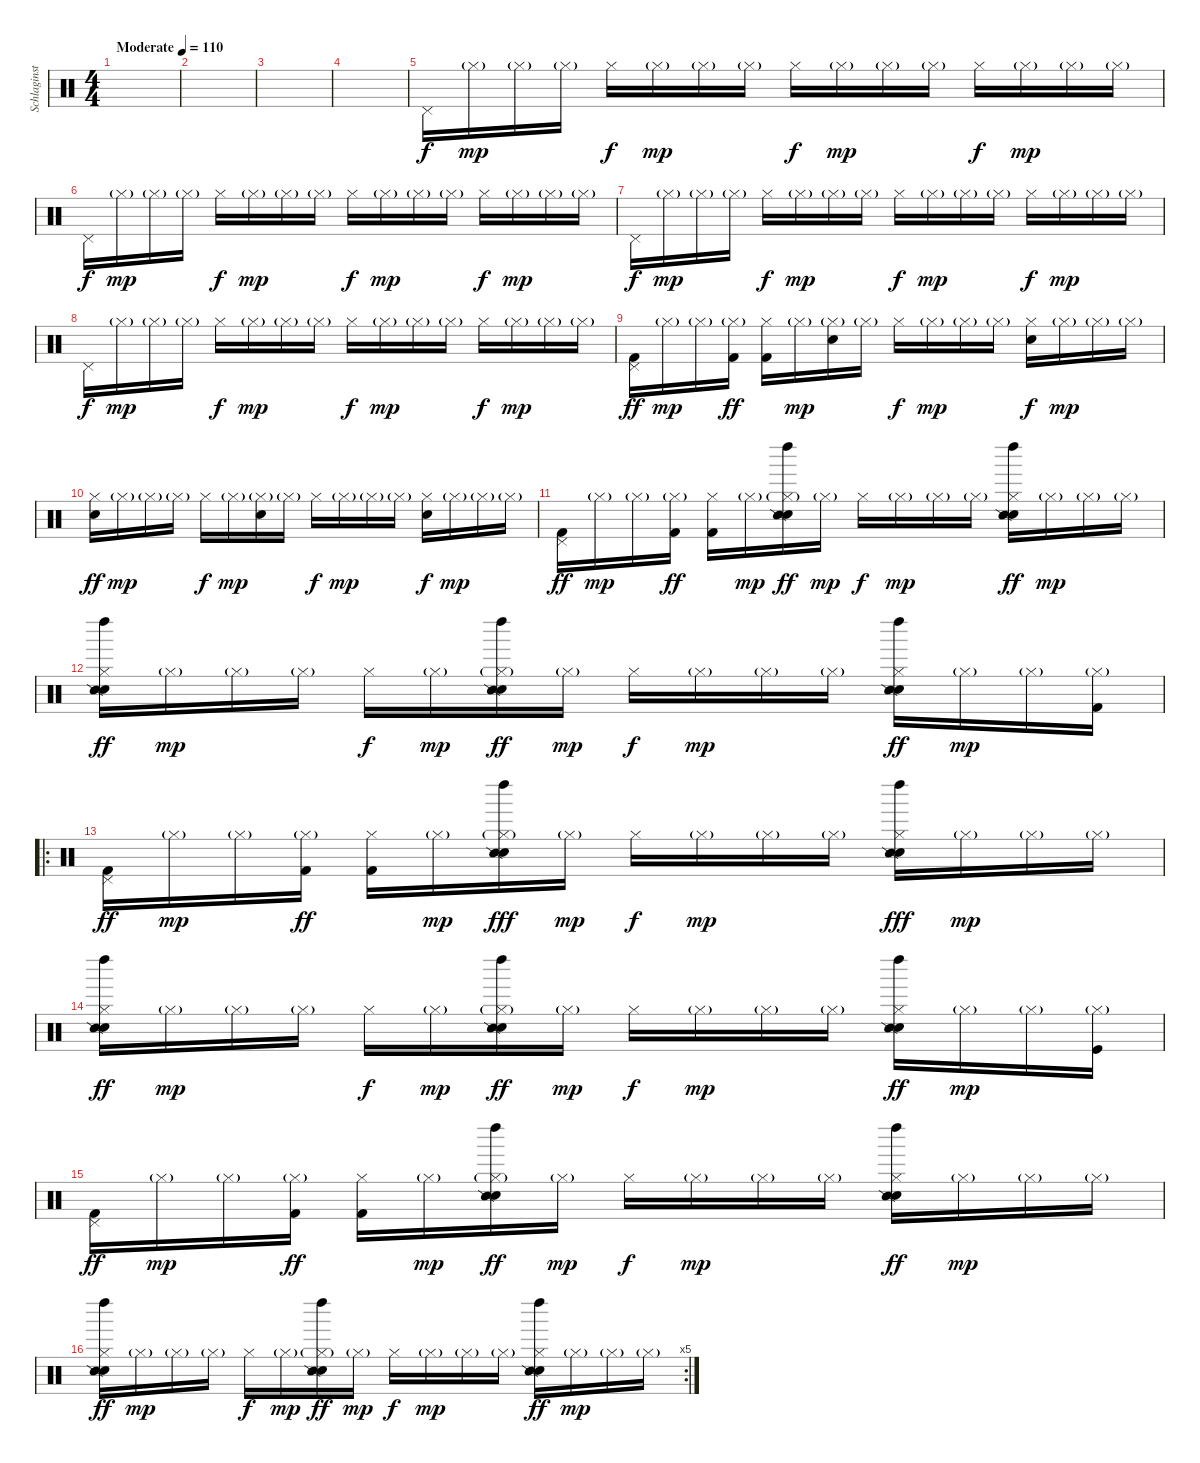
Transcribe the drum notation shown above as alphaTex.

\track ("Schlaginstrumente - Auswahl" "Schlaginst") {instrument percussion}
\staff {score}
\articulation defaults
\ts (4 4)
\tempo (110 "Moderate")
\clef neutral
\ks c
|
|
|
|
"Pedal Hi-Hat (hit)".16 "Hi-Hat (closed)"{g}.16{dy mp} "Hi-Hat (closed)"{g}.16 "Hi-Hat (closed)"{g}.16 "Hi-Hat (closed)".16{dy f} "Hi-Hat (closed)"{g}.16{dy mp} "Hi-Hat (closed)"{g}.16 "Hi-Hat (closed)"{g}.16 "Hi-Hat (closed)".16{dy f} "Hi-Hat (closed)"{g}.16{dy mp} "Hi-Hat (closed)"{g}.16 "Hi-Hat (closed)"{g}.16 "Hi-Hat (closed)".16{dy f} "Hi-Hat (closed)"{g}.16{dy mp} "Hi-Hat (closed)"{g}.16 "Hi-Hat (closed)"{g}.16 |
"Pedal Hi-Hat (hit)".16{dy f} "Hi-Hat (closed)"{g}.16{dy mp} "Hi-Hat (closed)"{g}.16 "Hi-Hat (closed)"{g}.16 "Hi-Hat (closed)".16{dy f} "Hi-Hat (closed)"{g}.16{dy mp} "Hi-Hat (closed)"{g}.16 "Hi-Hat (closed)"{g}.16 "Hi-Hat (closed)".16{dy f} "Hi-Hat (closed)"{g}.16{dy mp} "Hi-Hat (closed)"{g}.16 "Hi-Hat (closed)"{g}.16 "Hi-Hat (closed)".16{dy f} "Hi-Hat (closed)"{g}.16{dy mp} "Hi-Hat (closed)"{g}.16 "Hi-Hat (closed)"{g}.16 |
"Pedal Hi-Hat (hit)".16{dy f} "Hi-Hat (closed)"{g}.16{dy mp} "Hi-Hat (closed)"{g}.16 "Hi-Hat (closed)"{g}.16 "Hi-Hat (closed)".16{dy f} "Hi-Hat (closed)"{g}.16{dy mp} "Hi-Hat (closed)"{g}.16 "Hi-Hat (closed)"{g}.16 "Hi-Hat (closed)".16{dy f} "Hi-Hat (closed)"{g}.16{dy mp} "Hi-Hat (closed)"{g}.16 "Hi-Hat (closed)"{g}.16 "Hi-Hat (closed)".16{dy f} "Hi-Hat (closed)"{g}.16{dy mp} "Hi-Hat (closed)"{g}.16 "Hi-Hat (closed)"{g}.16 |
"Pedal Hi-Hat (hit)".16{dy f} "Hi-Hat (closed)"{g}.16{dy mp} "Hi-Hat (closed)"{g}.16 "Hi-Hat (closed)"{g}.16 "Hi-Hat (closed)".16{dy f} "Hi-Hat (closed)"{g}.16{dy mp} "Hi-Hat (closed)"{g}.16 "Hi-Hat (closed)"{g}.16 "Hi-Hat (closed)".16{dy f} "Hi-Hat (closed)"{g}.16{dy mp} "Hi-Hat (closed)"{g}.16 "Hi-Hat (closed)"{g}.16 "Hi-Hat (closed)".16{dy f} "Hi-Hat (closed)"{g}.16{dy mp} "Hi-Hat (closed)"{g}.16 "Hi-Hat (closed)"{g}.16 |
("Pedal Hi-Hat (hit)" "Kick (hit) 2").16{dy ff} "Hi-Hat (closed)"{g}.16{dy mp} "Hi-Hat (closed)"{g}.16 ("Hi-Hat (closed)"{g} "Kick (hit) 2").16{dy ff} ("Hi-Hat (closed)" "Kick (hit) 2").16 "Hi-Hat (closed)"{g}.16{dy mp} ("Hi-Hat (closed)"{g} "Electric Snare (hit)").16 "Hi-Hat (closed)"{g}.16 "Hi-Hat (closed)".16{dy f} "Hi-Hat (closed)"{g}.16{dy mp} "Hi-Hat (closed)"{g}.16 "Hi-Hat (closed)"{g}.16 ("Hi-Hat (closed)" "Electric Snare (hit)").16{dy f} "Hi-Hat (closed)"{g}.16{dy mp} "Hi-Hat (closed)"{g}.16 "Hi-Hat (closed)"{g}.16 |
("Hi-Hat (closed)" "Electric Snare (hit)").16{dy ff} "Hi-Hat (closed)"{g}.16{dy mp} "Hi-Hat (closed)"{g}.16 "Hi-Hat (closed)"{g}.16 "Hi-Hat (closed)".16{dy f} "Hi-Hat (closed)"{g}.16{dy mp} ("Hi-Hat (closed)"{g} "Electric Snare (hit)").16 "Hi-Hat (closed)"{g}.16 "Hi-Hat (closed)".16{dy f} "Hi-Hat (closed)"{g}.16{dy mp} "Hi-Hat (closed)"{g}.16 "Hi-Hat (closed)"{g}.16 ("Hi-Hat (closed)" "Electric Snare (hit)").16{dy f} "Hi-Hat (closed)"{g}.16{dy mp} "Hi-Hat (closed)"{g}.16 "Hi-Hat (closed)"{g}.16 |
("Pedal Hi-Hat (hit)" "Kick (hit) 2").16{dy ff} "Hi-Hat (closed)"{g}.16{dy mp} "Hi-Hat (closed)"{g}.16 ("Hi-Hat (closed)"{g} "Kick (hit) 2").16{dy ff} ("Hi-Hat (closed)" "Kick (hit) 2").16 "Hi-Hat (closed)"{g}.16{dy mp} ("Hi-Hat (closed)"{g} "Electric Snare (hit)" "Left Maraca (hit)" "Snare (side stick) 2").16{dy ff} "Hi-Hat (closed)"{g}.16{dy mp} "Hi-Hat (closed)".16{dy f} "Hi-Hat (closed)"{g}.16{dy mp} "Hi-Hat (closed)"{g}.16 "Hi-Hat (closed)"{g}.16 ("Hi-Hat (closed)" "Electric Snare (hit)" "Left Maraca (hit)" "Snare (side stick) 2").16{dy ff} "Hi-Hat (closed)"{g}.16{dy mp} "Hi-Hat (closed)"{g}.16 "Hi-Hat (closed)"{g}.16 |
("Hi-Hat (closed)" "Electric Snare (hit)" "Left Maraca (hit)" "Snare (side stick) 2").16{dy ff} "Hi-Hat (closed)"{g}.16{dy mp} "Hi-Hat (closed)"{g}.16 "Hi-Hat (closed)"{g}.16 "Hi-Hat (closed)".16{dy f} "Hi-Hat (closed)"{g}.16{dy mp} ("Hi-Hat (closed)"{g} "Electric Snare (hit)" "Left Maraca (hit)" "Snare (side stick) 2").16{dy ff} "Hi-Hat (closed)"{g}.16{dy mp} "Hi-Hat (closed)".16{dy f} "Hi-Hat (closed)"{g}.16{dy mp} "Hi-Hat (closed)"{g}.16 "Hi-Hat (closed)"{g}.16 ("Hi-Hat (closed)" "Electric Snare (hit)" "Left Maraca (hit)" "Snare (side stick) 2").16{dy ff} "Hi-Hat (closed)"{g}.16{dy mp} "Hi-Hat (closed)"{g}.16 ("Hi-Hat (closed)"{g} "Kick (hit) 2").16 |
\ro
("Pedal Hi-Hat (hit)" "Kick (hit) 2").16{dy ff} "Hi-Hat (closed)"{g}.16{dy mp} "Hi-Hat (closed)"{g}.16 ("Hi-Hat (closed)"{g} "Kick (hit) 2").16{dy ff} ("Hi-Hat (closed)" "Kick (hit) 2").16 "Hi-Hat (closed)"{g}.16{dy mp} ("Hi-Hat (closed)"{g} "Electric Snare (hit)" "Left Maraca (hit)" "Snare (side stick) 2").16{dy fff} "Hi-Hat (closed)"{g}.16{dy mp} "Hi-Hat (closed)".16{dy f} "Hi-Hat (closed)"{g}.16{dy mp} "Hi-Hat (closed)"{g}.16 "Hi-Hat (closed)"{g}.16 ("Hi-Hat (closed)" "Electric Snare (hit)" "Left Maraca (hit)" "Snare (side stick) 2").16{dy fff} "Hi-Hat (closed)"{g}.16{dy mp} "Hi-Hat (closed)"{g}.16 "Hi-Hat (closed)"{g}.16 |
("Hi-Hat (closed)" "Electric Snare (hit)" "Left Maraca (hit)" "Snare (side stick) 2").16{dy ff} "Hi-Hat (closed)"{g}.16{dy mp} "Hi-Hat (closed)"{g}.16 "Hi-Hat (closed)"{g}.16 "Hi-Hat (closed)".16{dy f} "Hi-Hat (closed)"{g}.16{dy mp} ("Hi-Hat (closed)"{g} "Electric Snare (hit)" "Left Maraca (hit)" "Snare (side stick) 2").16{dy ff} "Hi-Hat (closed)"{g}.16{dy mp} "Hi-Hat (closed)".16{dy f} "Hi-Hat (closed)"{g}.16{dy mp} "Hi-Hat (closed)"{g}.16 "Hi-Hat (closed)"{g}.16 ("Hi-Hat (closed)" "Electric Snare (hit)" "Left Maraca (hit)" "Snare (side stick) 2").16{dy ff} "Hi-Hat (closed)"{g}.16{dy mp} "Hi-Hat (closed)"{g}.16 ("Hi-Hat (closed)"{g} "Kick (hit)").16 |
("Pedal Hi-Hat (hit)" "Kick (hit) 2").16{dy ff} "Hi-Hat (closed)"{g}.16{dy mp} "Hi-Hat (closed)"{g}.16 ("Hi-Hat (closed)"{g} "Kick (hit) 2").16{dy ff} ("Hi-Hat (closed)" "Kick (hit) 2").16 "Hi-Hat (closed)"{g}.16{dy mp} ("Hi-Hat (closed)"{g} "Electric Snare (hit)" "Left Maraca (hit)" "Snare (side stick) 2").16{dy ff} "Hi-Hat (closed)"{g}.16{dy mp} "Hi-Hat (closed)".16{dy f} "Hi-Hat (closed)"{g}.16{dy mp} "Hi-Hat (closed)"{g}.16 "Hi-Hat (closed)"{g}.16 ("Hi-Hat (closed)" "Electric Snare (hit)" "Left Maraca (hit)" "Snare (side stick) 2").16{dy ff} "Hi-Hat (closed)"{g}.16{dy mp} "Hi-Hat (closed)"{g}.16 "Hi-Hat (closed)"{g}.16 |
\rc 5
("Hi-Hat (closed)" "Electric Snare (hit)" "Left Maraca (hit)" "Snare (side stick) 2").16{dy ff} "Hi-Hat (closed)"{g}.16{dy mp} "Hi-Hat (closed)"{g}.16 "Hi-Hat (closed)"{g}.16 "Hi-Hat (closed)".16{dy f} "Hi-Hat (closed)"{g}.16{dy mp} ("Hi-Hat (closed)"{g} "Electric Snare (hit)" "Left Maraca (hit)" "Snare (side stick) 2").16{dy ff} "Hi-Hat (closed)"{g}.16{dy mp} "Hi-Hat (closed)".16{dy f} "Hi-Hat (closed)"{g}.16{dy mp} "Hi-Hat (closed)"{g}.16 "Hi-Hat (closed)"{g}.16 ("Hi-Hat (closed)" "Electric Snare (hit)" "Left Maraca (hit)" "Snare (side stick) 2").16{dy ff} "Hi-Hat (closed)"{g}.16{dy mp} "Hi-Hat (closed)"{g}.16 "Hi-Hat (closed)"{g}.16
